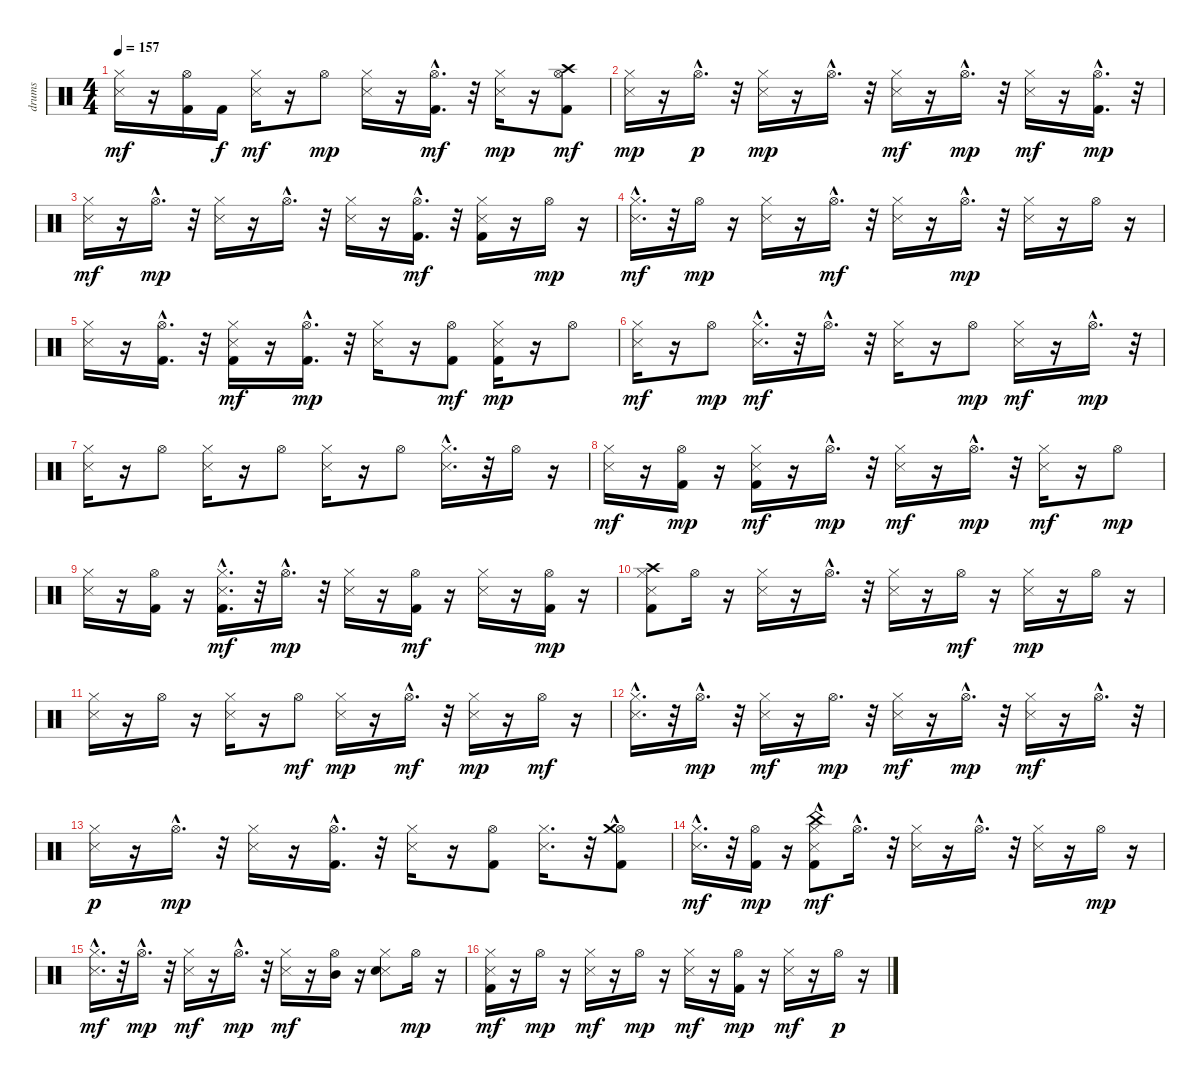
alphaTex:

\track ("drums   " "drums   ") {instrument percussion}
\staff {score}
\articulation defaults
\ts (4 4)
\tempo 157
\clef neutral
\ks c
("Snare (side stick) 3" "Hi-Hat (closed)").16{dy mf} r.16 ("Kick (hit) 2" "Hi-Hat (open)").16 "Kick (hit) 2".16{dy f} ("Snare (side stick) 3" "Hi-Hat (closed)").16{dy mf} r.16 "Hi-Hat (open)".8{dy mp} ("Snare (side stick) 3" "Hi-Hat (closed)").16 r.16 ("Kick (hit) 2" "Hi-Hat (open)"{hac}).16{d dy mf} r.32 ("Snare (side stick) 3" "Hi-Hat (closed)").16{dy mp} r.16 ("Kick (hit) 2" "Hi-Hat (open)" "Crash high (hit)").8{dy mf} |
("Snare (side stick) 3" "Hi-Hat (closed)").16{dy mp} r.16 "Hi-Hat (open)"{hac}.16{d dy p} r.32 ("Snare (side stick) 3" "Hi-Hat (closed)").16{dy mp} r.16 "Hi-Hat (open)"{hac}.16{d} r.32 ("Snare (side stick) 3" "Hi-Hat (closed)").16{dy mf} r.16 "Hi-Hat (open)"{hac}.16{d dy mp} r.32 ("Snare (side stick) 3" "Hi-Hat (closed)").16{dy mf} r.16 ("Kick (hit) 2" "Hi-Hat (open)"{hac}).16{d dy mp} r.32 |
("Snare (side stick) 3" "Hi-Hat (closed)").16{dy mf} r.16 "Hi-Hat (open)"{hac}.16{d dy mp} r.32 ("Snare (side stick) 3" "Hi-Hat (closed)").16 r.16 "Hi-Hat (open)"{hac}.16{d} r.32 ("Snare (side stick) 3" "Hi-Hat (closed)").16 r.16 ("Kick (hit) 2" "Hi-Hat (open)"{hac}).16{d dy mf} r.32 ("Kick (hit) 2" "Snare (side stick) 3" "Hi-Hat (closed)").16 r.16 "Hi-Hat (open)".16{dy mp} r.16 |
("Snare (side stick) 3"{hac} "Hi-Hat (closed)").16{d dy mf} r.32 "Hi-Hat (open)".16{dy mp} r.16 ("Snare (side stick) 3" "Hi-Hat (closed)").16 r.16 "Hi-Hat (open)"{hac}.16{d dy mf} r.32 ("Snare (side stick) 3" "Hi-Hat (closed)").16 r.16 "Hi-Hat (open)"{hac}.16{d dy mp} r.32 ("Snare (side stick) 3" "Hi-Hat (closed)").16 r.16 "Hi-Hat (open)".16 r.16 |
("Snare (side stick) 3" "Hi-Hat (closed)").16 r.16 ("Kick (hit) 2" "Hi-Hat (open)"{hac}).16{d} r.32 ("Kick (hit) 2" "Snare (side stick) 3" "Hi-Hat (closed)").16{dy mf} r.16 ("Kick (hit) 2" "Hi-Hat (open)"{hac}).16{d dy mp} r.32 ("Snare (side stick) 3" "Hi-Hat (closed)").16 r.16 ("Kick (hit) 2" "Hi-Hat (open)").8{dy mf} ("Kick (hit) 2" "Snare (side stick) 3" "Hi-Hat (closed)").16{dy mp} r.16 "Hi-Hat (open)".8 |
("Snare (side stick) 3" "Hi-Hat (closed)").16{dy mf} r.16 "Hi-Hat (open)".8{dy mp} ("Snare (side stick) 3"{hac} "Hi-Hat (closed)").16{d dy mf} r.32 "Hi-Hat (open)"{hac}.16{d} r.32 ("Snare (side stick) 3" "Hi-Hat (closed)").16 r.16 "Hi-Hat (open)".8{dy mp} ("Snare (side stick) 3" "Hi-Hat (closed)").16{dy mf} r.16 "Hi-Hat (open)"{hac}.16{d dy mp} r.32 |
("Snare (side stick) 3" "Hi-Hat (closed)").16 r.16 "Hi-Hat (open)".8 ("Snare (side stick) 3" "Hi-Hat (closed)").16 r.16 "Hi-Hat (open)".8 ("Snare (side stick) 3" "Hi-Hat (closed)").16 r.16 "Hi-Hat (open)".8 ("Snare (side stick) 3" "Hi-Hat (closed)"{hac}).16{d} r.32 "Hi-Hat (open)".16 r.16 |
("Snare (side stick) 3" "Hi-Hat (closed)").16{dy mf} r.16 ("Kick (hit) 2" "Hi-Hat (open)").16{dy mp} r.16 ("Kick (hit) 2" "Snare (side stick) 3" "Hi-Hat (closed)").16{dy mf} r.16 "Hi-Hat (open)"{hac}.16{d dy mp} r.32 ("Snare (side stick) 3" "Hi-Hat (closed)").16{dy mf} r.16 "Hi-Hat (open)"{hac}.16{d dy mp} r.32 ("Snare (side stick) 3" "Hi-Hat (closed)").16{dy mf} r.16 "Hi-Hat (open)".8{dy mp} |
("Snare (side stick) 3" "Hi-Hat (closed)").16 r.16 ("Kick (hit) 2" "Hi-Hat (open)").16 r.16 ("Kick (hit) 2" "Snare (side stick) 3" "Hi-Hat (closed)"{hac}).16{d dy mf} r.32 "Hi-Hat (open)"{hac}.16{d dy mp} r.32 ("Snare (side stick) 3" "Hi-Hat (closed)").16 r.16 ("Kick (hit) 2" "Hi-Hat (open)").16{dy mf} r.16 ("Snare (side stick) 3" "Hi-Hat (closed)").16 r.16 ("Kick (hit) 2" "Hi-Hat (open)").16{dy mp} r.16 |
("Kick (hit) 2" "Snare (side stick) 3" "Hi-Hat (closed)" "Crash high (hit)").8 "Hi-Hat (open)".16 r.16 ("Snare (side stick) 3" "Hi-Hat (closed)").16 r.16 "Hi-Hat (open)"{hac}.16{d} r.32 ("Snare (side stick) 3" "Hi-Hat (closed)").16 r.16 "Hi-Hat (open)".16{dy mf} r.16 ("Snare (side stick) 3" "Hi-Hat (closed)").16{dy mp} r.16 "Hi-Hat (open)".16 r.16 |
("Snare (side stick) 3" "Hi-Hat (closed)").16 r.16 "Hi-Hat (open)".16 r.16 ("Snare (side stick) 3" "Hi-Hat (closed)").16 r.16 "Hi-Hat (open)".8{dy mf} ("Snare (side stick) 3" "Hi-Hat (closed)").16{dy mp} r.16 "Hi-Hat (open)"{hac}.16{d dy mf} r.32 ("Snare (side stick) 3" "Hi-Hat (closed)").16{dy mp} r.16 "Hi-Hat (open)".16{dy mf} r.16 |
("Snare (side stick) 3" "Hi-Hat (closed)"{hac}).16{d} r.32 "Hi-Hat (open)"{hac}.16{d dy mp} r.32 ("Snare (side stick) 3" "Hi-Hat (closed)").16{dy mf} r.16 "Hi-Hat (open)".16{d dy mp} r.32 ("Snare (side stick) 3" "Hi-Hat (closed)").16{dy mf} r.16 "Hi-Hat (open)"{hac}.16{d dy mp} r.32 ("Snare (side stick) 3" "Hi-Hat (closed)").16{dy mf} r.16 "Hi-Hat (open)"{hac}.16{d} r.32 |
("Snare (side stick) 3" "Hi-Hat (closed)").16{dy p} r.16 "Hi-Hat (open)"{hac}.16{d dy mp} r.32 ("Snare (side stick) 3" "Hi-Hat (closed)").16 r.16 ("Kick (hit) 2" "Hi-Hat (open)"{hac}).16{d} r.32 ("Snare (side stick) 3" "Hi-Hat (closed)").16 r.16 ("Kick (hit) 2" "Hi-Hat (open)").8 ("Snare (side stick) 3" "Hi-Hat (closed)").16{d} r.32 ("Kick (hit) 2"{hac} "Hi-Hat (open)" "Crash medium (hit)").8 |
("Snare (side stick) 3"{hac} "Hi-Hat (closed)"{hac}).16{d dy mf} r.32 ("Kick (hit) 2" "Hi-Hat (open)").16{dy mp} r.16 ("Kick (hit) 2"{hac} "Snare (side stick) 3" "Hi-Hat (closed)" "China (hit)").8{dy mf} "Hi-Hat (open)"{hac}.16{d} r.32 ("Snare (side stick) 3" "Hi-Hat (closed)").16 r.16 "Hi-Hat (open)"{hac}.16{d} r.32 ("Snare (side stick) 3" "Hi-Hat (closed)").16 r.16 "Hi-Hat (open)".16{dy mp} r.16 |
("Snare (side stick) 3" "Hi-Hat (closed)"{hac}).16{d dy mf} r.32 "Hi-Hat (open)"{hac}.16{d dy mp} r.32 ("Snare (side stick) 3" "Hi-Hat (closed)").16{dy mf} r.16 "Hi-Hat (open)"{hac}.16{d dy mp} r.32 ("Snare (side stick) 3" "Hi-Hat (closed)").16{dy mf} r.16 ("Hi-Hat (open)" "Mid Tom (hit)").16 r.16 ("Snare (side stick) 3" "Electric Snare (hit)" "Hi-Hat (closed)").8 "Hi-Hat (open)".16{dy mp} r.16 |
("Kick (hit) 2" "Snare (side stick) 3" "Hi-Hat (closed)").16{dy mf} r.16 "Hi-Hat (open)".16{dy mp} r.16 ("Snare (side stick) 3" "Hi-Hat (closed)").16{dy mf} r.16 "Hi-Hat (open)".16{dy mp} r.16 ("Snare (side stick) 3" "Hi-Hat (closed)").16{dy mf} r.16 ("Kick (hit) 2" "Hi-Hat (open)").16{dy mp} r.16 ("Snare (side stick) 3" "Hi-Hat (closed)").16{dy mf} r.16 "Hi-Hat (open)".16{dy p} r.16
